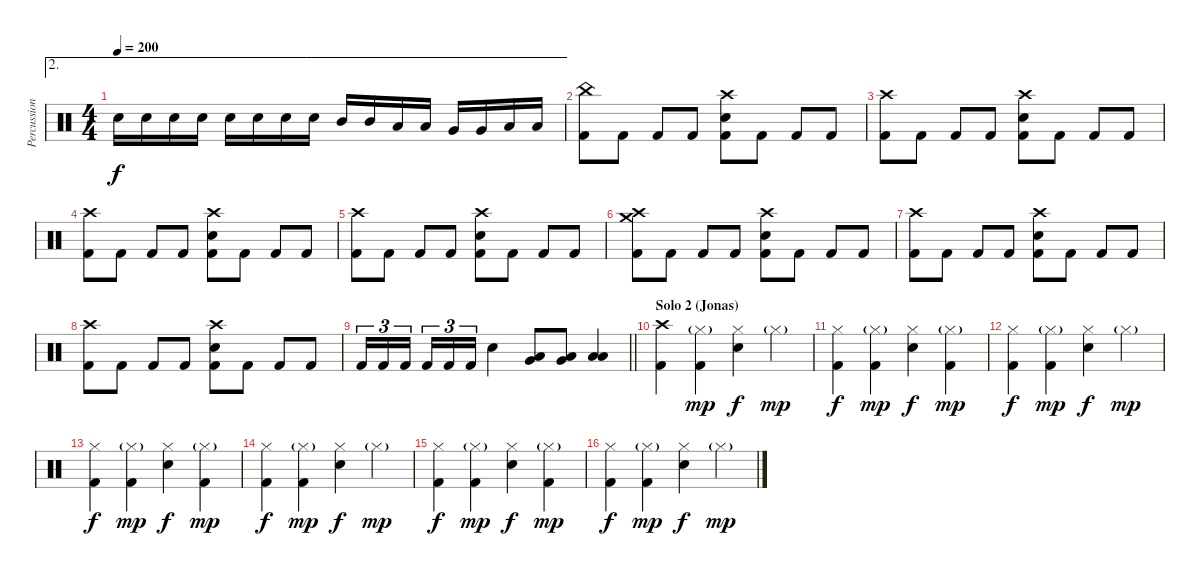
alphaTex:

\track ("Percussion" "Percussion") {instrument percussion}
\staff {score}
\articulation defaults
\ae 2
\ts (4 4)
\tempo 200
\clef neutral
\ks c "Electric Snare (hit)".16{dy f} "Electric Snare (hit)".16 "Electric Snare (hit)".16 "Electric Snare (hit)".16 "Electric Snare (hit)".16 "Electric Snare (hit)".16 "Electric Snare (hit)".16 "Electric Snare (hit)".16 "Mid Tom (hit)".16 "Mid Tom (hit)".16 "Low Tom (hit)".16 "Low Tom (hit)".16 "Very Low Tom (hit)".16 "Very Low Tom (hit)".16 "Low Floor Tom (hit)".16 "Low Floor Tom (hit)".16
|
("China (hit)" "Kick (hit) 2").8 "Kick (hit) 2".8 "Kick (hit) 2".8 "Kick (hit) 2".8 ("Crash high (hit)" "Electric Snare (hit)" "Kick (hit) 2").8 "Kick (hit) 2".8 "Kick (hit) 2".8 "Kick (hit) 2".8 |
("Crash high (hit)" "Kick (hit) 2").8 "Kick (hit) 2".8 "Kick (hit) 2".8 "Kick (hit) 2".8 ("Crash high (hit)" "Electric Snare (hit)" "Kick (hit) 2").8 "Kick (hit) 2".8 "Kick (hit) 2".8 "Kick (hit) 2".8 |
("Crash high (hit)" "Kick (hit) 2").8 "Kick (hit) 2".8 "Kick (hit) 2".8 "Kick (hit) 2".8 ("Crash high (hit)" "Electric Snare (hit)" "Kick (hit) 2").8 "Kick (hit) 2".8 "Kick (hit) 2".8 "Kick (hit) 2".8 |
("Crash high (hit)" "Kick (hit) 2").8 "Kick (hit) 2".8 "Kick (hit) 2".8 "Kick (hit) 2".8 ("Crash high (hit)" "Electric Snare (hit)" "Kick (hit) 2").8 "Kick (hit) 2".8 "Kick (hit) 2".8 "Kick (hit) 2".8 |
("Crash high (hit)" "Crash medium (hit)" "Kick (hit) 2").8 "Kick (hit) 2".8 "Kick (hit) 2".8 "Kick (hit) 2".8 ("Crash high (hit)" "Electric Snare (hit)" "Kick (hit) 2").8 "Kick (hit) 2".8 "Kick (hit) 2".8 "Kick (hit) 2".8 |
("Crash high (hit)" "Kick (hit) 2").8 "Kick (hit) 2".8 "Kick (hit) 2".8 "Kick (hit) 2".8 ("Crash high (hit)" "Electric Snare (hit)" "Kick (hit) 2").8 "Kick (hit) 2".8 "Kick (hit) 2".8 "Kick (hit) 2".8 |
("Crash high (hit)" "Kick (hit) 2").8 "Kick (hit) 2".8 "Kick (hit) 2".8 "Kick (hit) 2".8 ("Crash high (hit)" "Electric Snare (hit)" "Kick (hit) 2").8 "Kick (hit) 2".8 "Kick (hit) 2".8 "Kick (hit) 2".8 |
\barLineRight lightlight "Kick (hit) 2".16{tu (3 2)} "Kick (hit) 2".16{tu (3 2)} "Kick (hit) 2".16{tu (3 2) beam splitsecondary} "Kick (hit) 2".16{tu (3 2)} "Kick (hit) 2".16{tu (3 2)} "Kick (hit) 2".16{tu (3 2)} "Electric Snare (hit)".4
("Low Floor Tom (hit)" "Very Low Tom (hit)").8 ("Low Floor Tom (hit)" "Very Low Tom (hit)").8 ("Low Floor Tom (hit)" "Low Floor Tom (hit)").4 |
\section ("" "Solo 2 (Jonas)")
("Crash high (hit)" "Kick (hit) 2").4 ("Hi-Hat (closed)"{g} "Kick (hit) 2").4{dy mp} ("Hi-Hat (closed)" "Electric Snare (hit)").4{dy f} "Hi-Hat (closed)"{g}.4{dy mp} |
("Hi-Hat (closed)" "Kick (hit) 2").4{dy f} ("Hi-Hat (closed)"{g} "Kick (hit) 2").4{dy mp} ("Hi-Hat (closed)" "Electric Snare (hit)").4{dy f} ("Hi-Hat (closed)"{g} "Kick (hit) 2").4{dy mp} |
("Hi-Hat (closed)" "Kick (hit) 2").4{dy f} ("Hi-Hat (closed)"{g} "Kick (hit) 2").4{dy mp} ("Hi-Hat (closed)" "Electric Snare (hit)").4{dy f} "Hi-Hat (closed)"{g}.4{dy mp} |
("Hi-Hat (closed)" "Kick (hit) 2").4{dy f} ("Hi-Hat (closed)"{g} "Kick (hit) 2").4{dy mp} ("Hi-Hat (closed)" "Electric Snare (hit)").4{dy f} ("Hi-Hat (closed)"{g} "Kick (hit) 2").4{dy mp} |
("Hi-Hat (closed)" "Kick (hit) 2").4{dy f} ("Hi-Hat (closed)"{g} "Kick (hit) 2").4{dy mp} ("Hi-Hat (closed)" "Electric Snare (hit)").4{dy f} "Hi-Hat (closed)"{g}.4{dy mp} |
("Hi-Hat (closed)" "Kick (hit) 2").4{dy f} ("Hi-Hat (closed)"{g} "Kick (hit) 2").4{dy mp} ("Hi-Hat (closed)" "Electric Snare (hit)").4{dy f} ("Hi-Hat (closed)"{g} "Kick (hit) 2").4{dy mp} |
("Hi-Hat (closed)" "Kick (hit) 2").4{dy f} ("Hi-Hat (closed)"{g} "Kick (hit) 2").4{dy mp} ("Hi-Hat (closed)" "Electric Snare (hit)").4{dy f} "Hi-Hat (closed)"{g}.4{dy mp}
